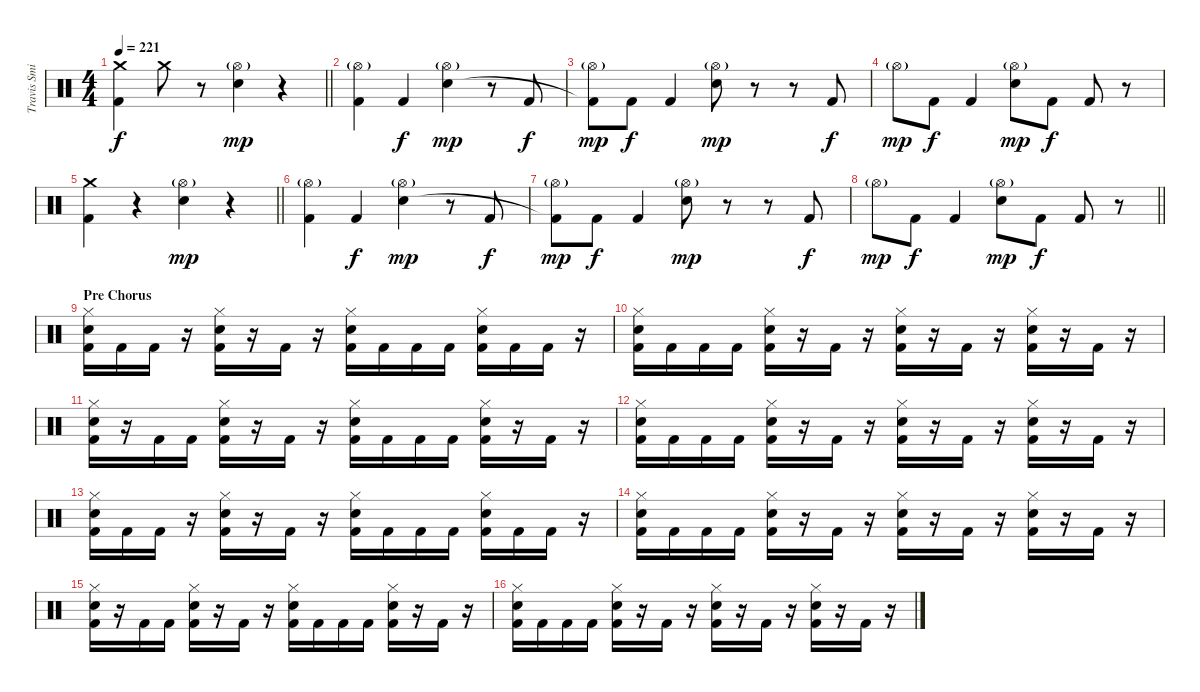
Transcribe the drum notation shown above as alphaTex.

\track ("Travis Smith" "Travis Smi") {instrument percussion}
\staff {score}
\articulation defaults
\ts (4 4)
\tempo 221
\clef neutral
\barLineRight lightlight
\ks c
("Crash medium (hit)" "Kick (hit) 2").4{dy f} "Crash medium (hit)".8 r.8 ("Hi-Hat (open)"{g} "Electric Snare (hit)").4{dy mp} r.4 |
("Hi-Hat (open)"{g} "Kick (hit) 2").4 "Kick (hit) 2".4{dy f} ("Hi-Hat (open)"{g} "Electric Snare (hit)").4{dy mp} r.8 "Kick (hit) 2".8{dy f} |
("Hi-Hat (open)"{g} "Kick (hit) 2"{t}).8{dy mp} "Kick (hit) 2".8{dy f} "Kick (hit) 2".4 ("Hi-Hat (open)"{g} "Electric Snare (hit)").8{dy mp} r.8 r.8 "Kick (hit) 2".8{dy f} |
"Hi-Hat (open)"{g}.8{dy mp} "Kick (hit) 2".8{dy f} "Kick (hit) 2".4 ("Hi-Hat (open)"{g} "Electric Snare (hit)").8{dy mp} "Kick (hit) 2".8{dy f} "Kick (hit) 2".8 r.8 |
\barLineRight lightlight
("Crash medium (hit)" "Kick (hit) 2").4 r.4 ("Hi-Hat (open)"{g} "Electric Snare (hit)").4{dy mp} r.4 |
("Hi-Hat (open)"{g} "Kick (hit) 2").4 "Kick (hit) 2".4{dy f} ("Hi-Hat (open)"{g} "Electric Snare (hit)").4{dy mp} r.8 "Kick (hit) 2".8{dy f} |
("Hi-Hat (open)"{g} "Kick (hit) 2"{t}).8{dy mp} "Kick (hit) 2".8{dy f} "Kick (hit) 2".4 ("Hi-Hat (open)"{g} "Electric Snare (hit)").8{dy mp} r.8 r.8 "Kick (hit) 2".8{dy f} |
\barLineRight lightlight "Hi-Hat (open)"{g}.8{dy mp} "Kick (hit) 2".8{dy f} "Kick (hit) 2".4
("Hi-Hat (open)"{g} "Electric Snare (hit)").8{dy mp} "Kick (hit) 2".8{dy f} "Kick (hit) 2".8 r.8 |
\section ("" "Pre Chorus")
("Hi-Hat (closed)" "Electric Snare (hit)" "Kick (hit) 2").16 "Kick (hit) 2".16 "Kick (hit) 2".16 r.16 ("Hi-Hat (closed)" "Electric Snare (hit)" "Kick (hit) 2").16 r.16 "Kick (hit) 2".16 r.16 ("Hi-Hat (closed)" "Electric Snare (hit)" "Kick (hit) 2").16 "Kick (hit) 2".16 "Kick (hit) 2".16 "Kick (hit) 2".16 ("Hi-Hat (closed)" "Electric Snare (hit)" "Kick (hit) 2").16 "Kick (hit) 2".16 "Kick (hit) 2".16 r.16 |
("Hi-Hat (closed)" "Electric Snare (hit)" "Kick (hit) 2").16 "Kick (hit) 2".16 "Kick (hit) 2".16 "Kick (hit) 2".16 ("Hi-Hat (closed)" "Electric Snare (hit)" "Kick (hit) 2").16 r.16 "Kick (hit) 2".16 r.16 ("Hi-Hat (closed)" "Electric Snare (hit)" "Kick (hit) 2").16 r.16 "Kick (hit) 2".16 r.16 ("Hi-Hat (closed)" "Electric Snare (hit)" "Kick (hit) 2").16 r.16 "Kick (hit) 2".16 r.16 |
("Hi-Hat (closed)" "Electric Snare (hit)" "Kick (hit) 2").16 r.16 "Kick (hit) 2".16 "Kick (hit) 2".16 ("Hi-Hat (closed)" "Electric Snare (hit)" "Kick (hit) 2").16 r.16 "Kick (hit) 2".16 r.16 ("Hi-Hat (closed)" "Electric Snare (hit)" "Kick (hit) 2").16 "Kick (hit) 2".16 "Kick (hit) 2".16 "Kick (hit) 2".16 ("Hi-Hat (closed)" "Electric Snare (hit)" "Kick (hit) 2").16 r.16 "Kick (hit) 2".16 r.16 |
("Hi-Hat (closed)" "Electric Snare (hit)" "Kick (hit) 2").16 "Kick (hit) 2".16 "Kick (hit) 2".16 "Kick (hit) 2".16 ("Hi-Hat (closed)" "Electric Snare (hit)" "Kick (hit) 2").16 r.16 "Kick (hit) 2".16 r.16 ("Hi-Hat (closed)" "Electric Snare (hit)" "Kick (hit) 2").16 r.16 "Kick (hit) 2".16 r.16 ("Hi-Hat (closed)" "Electric Snare (hit)" "Kick (hit) 2").16 r.16 "Kick (hit) 2".16 r.16 |
("Hi-Hat (closed)" "Electric Snare (hit)" "Kick (hit) 2").16 "Kick (hit) 2".16 "Kick (hit) 2".16 r.16 ("Hi-Hat (closed)" "Electric Snare (hit)" "Kick (hit) 2").16 r.16 "Kick (hit) 2".16 r.16 ("Hi-Hat (closed)" "Electric Snare (hit)" "Kick (hit) 2").16 "Kick (hit) 2".16 "Kick (hit) 2".16 "Kick (hit) 2".16 ("Hi-Hat (closed)" "Electric Snare (hit)" "Kick (hit) 2").16 "Kick (hit) 2".16 "Kick (hit) 2".16 r.16 |
("Hi-Hat (closed)" "Electric Snare (hit)" "Kick (hit) 2").16 "Kick (hit) 2".16 "Kick (hit) 2".16 "Kick (hit) 2".16 ("Hi-Hat (closed)" "Electric Snare (hit)" "Kick (hit) 2").16 r.16 "Kick (hit) 2".16 r.16 ("Hi-Hat (closed)" "Electric Snare (hit)" "Kick (hit) 2").16 r.16 "Kick (hit) 2".16 r.16 ("Hi-Hat (closed)" "Electric Snare (hit)" "Kick (hit) 2").16 r.16 "Kick (hit) 2".16 r.16 |
("Hi-Hat (closed)" "Electric Snare (hit)" "Kick (hit) 2").16 r.16 "Kick (hit) 2".16 "Kick (hit) 2".16 ("Hi-Hat (closed)" "Electric Snare (hit)" "Kick (hit) 2").16 r.16 "Kick (hit) 2".16 r.16 ("Hi-Hat (closed)" "Electric Snare (hit)" "Kick (hit) 2").16 "Kick (hit) 2".16 "Kick (hit) 2".16 "Kick (hit) 2".16 ("Hi-Hat (closed)" "Electric Snare (hit)" "Kick (hit) 2").16 r.16 "Kick (hit) 2".16 r.16 |
("Hi-Hat (closed)" "Electric Snare (hit)" "Kick (hit) 2").16 "Kick (hit) 2".16 "Kick (hit) 2".16 "Kick (hit) 2".16 ("Hi-Hat (closed)" "Electric Snare (hit)" "Kick (hit) 2").16 r.16 "Kick (hit) 2".16 r.16 ("Hi-Hat (closed)" "Electric Snare (hit)" "Kick (hit) 2").16 r.16 "Kick (hit) 2".16 r.16 ("Hi-Hat (closed)" "Electric Snare (hit)" "Kick (hit) 2").16 r.16 "Kick (hit) 2".16 r.16
